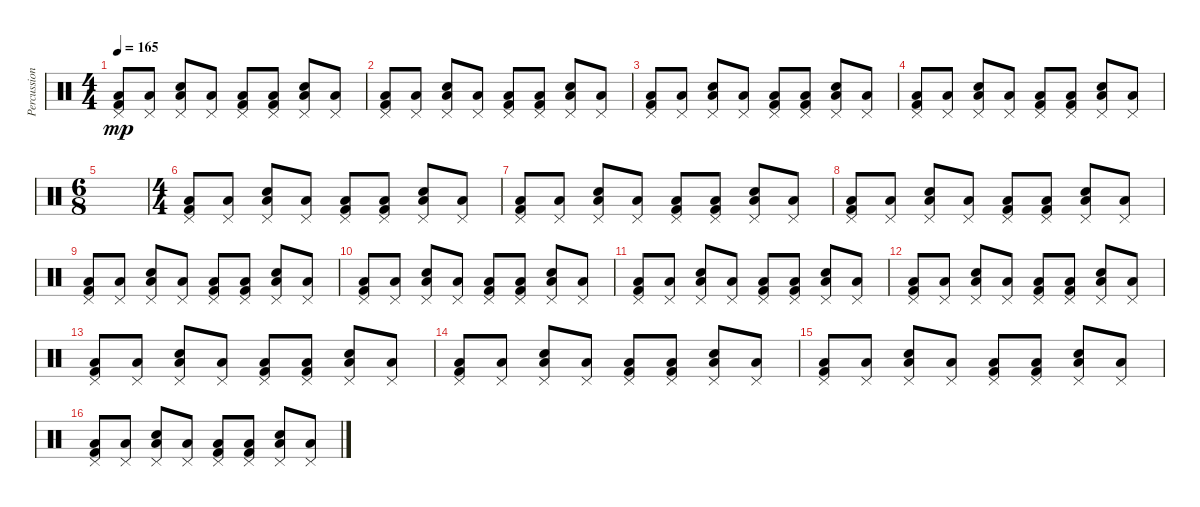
\track ("Percussion" "Percussion") {instrument percussion}
\staff {score}
\articulation defaults
\ts (4 4)
\tempo 165
\clef neutral
\ks c
("Low Floor Tom (hit)" "Kick (hit) 2" "Pedal Hi-Hat (hit)").8{dy mp} ("Low Floor Tom (hit)" "Pedal Hi-Hat (hit)").8 ("Low Floor Tom (hit)" "Electric Snare (hit)" "Pedal Hi-Hat (hit)").8 ("Low Floor Tom (hit)" "Pedal Hi-Hat (hit)").8 ("Low Floor Tom (hit)" "Kick (hit) 2" "Pedal Hi-Hat (hit)").8 ("Low Floor Tom (hit)" "Kick (hit) 2" "Pedal Hi-Hat (hit)").8 ("Low Floor Tom (hit)" "Electric Snare (hit)" "Pedal Hi-Hat (hit)").8 ("Low Floor Tom (hit)" "Pedal Hi-Hat (hit)").8 |
("Low Floor Tom (hit)" "Kick (hit) 2" "Pedal Hi-Hat (hit)").8 ("Low Floor Tom (hit)" "Pedal Hi-Hat (hit)").8 ("Low Floor Tom (hit)" "Electric Snare (hit)" "Pedal Hi-Hat (hit)").8 ("Low Floor Tom (hit)" "Pedal Hi-Hat (hit)").8 ("Low Floor Tom (hit)" "Kick (hit) 2" "Pedal Hi-Hat (hit)").8 ("Low Floor Tom (hit)" "Kick (hit) 2" "Pedal Hi-Hat (hit)").8 ("Low Floor Tom (hit)" "Electric Snare (hit)" "Pedal Hi-Hat (hit)").8 ("Low Floor Tom (hit)" "Pedal Hi-Hat (hit)").8 |
("Low Floor Tom (hit)" "Kick (hit) 2" "Pedal Hi-Hat (hit)").8 ("Low Floor Tom (hit)" "Pedal Hi-Hat (hit)").8 ("Low Floor Tom (hit)" "Electric Snare (hit)" "Pedal Hi-Hat (hit)").8 ("Low Floor Tom (hit)" "Pedal Hi-Hat (hit)").8 ("Low Floor Tom (hit)" "Kick (hit) 2" "Pedal Hi-Hat (hit)").8 ("Low Floor Tom (hit)" "Kick (hit) 2" "Pedal Hi-Hat (hit)").8 ("Low Floor Tom (hit)" "Electric Snare (hit)" "Pedal Hi-Hat (hit)").8 ("Low Floor Tom (hit)" "Pedal Hi-Hat (hit)").8 |
("Low Floor Tom (hit)" "Kick (hit) 2" "Pedal Hi-Hat (hit)").8 ("Low Floor Tom (hit)" "Pedal Hi-Hat (hit)").8 ("Low Floor Tom (hit)" "Electric Snare (hit)" "Pedal Hi-Hat (hit)").8 ("Low Floor Tom (hit)" "Pedal Hi-Hat (hit)").8 ("Low Floor Tom (hit)" "Kick (hit) 2" "Pedal Hi-Hat (hit)").8 ("Low Floor Tom (hit)" "Kick (hit) 2" "Pedal Hi-Hat (hit)").8 ("Low Floor Tom (hit)" "Electric Snare (hit)" "Pedal Hi-Hat (hit)").8 ("Low Floor Tom (hit)" "Pedal Hi-Hat (hit)").8 |
\ts (6 8)
|
\ts (4 4)
("Low Floor Tom (hit)" "Kick (hit) 2" "Pedal Hi-Hat (hit)").8 ("Low Floor Tom (hit)" "Pedal Hi-Hat (hit)").8 ("Low Floor Tom (hit)" "Electric Snare (hit)" "Pedal Hi-Hat (hit)").8 ("Low Floor Tom (hit)" "Pedal Hi-Hat (hit)").8 ("Low Floor Tom (hit)" "Kick (hit) 2" "Pedal Hi-Hat (hit)").8 ("Low Floor Tom (hit)" "Kick (hit) 2" "Pedal Hi-Hat (hit)").8 ("Low Floor Tom (hit)" "Electric Snare (hit)" "Pedal Hi-Hat (hit)").8 ("Low Floor Tom (hit)" "Pedal Hi-Hat (hit)").8 |
("Low Floor Tom (hit)" "Kick (hit) 2" "Pedal Hi-Hat (hit)").8 ("Low Floor Tom (hit)" "Pedal Hi-Hat (hit)").8 ("Low Floor Tom (hit)" "Electric Snare (hit)" "Pedal Hi-Hat (hit)").8 ("Low Floor Tom (hit)" "Pedal Hi-Hat (hit)").8 ("Low Floor Tom (hit)" "Kick (hit) 2" "Pedal Hi-Hat (hit)").8 ("Low Floor Tom (hit)" "Kick (hit) 2" "Pedal Hi-Hat (hit)").8 ("Low Floor Tom (hit)" "Electric Snare (hit)" "Pedal Hi-Hat (hit)").8 ("Low Floor Tom (hit)" "Pedal Hi-Hat (hit)").8 |
("Low Floor Tom (hit)" "Kick (hit) 2" "Pedal Hi-Hat (hit)").8 ("Low Floor Tom (hit)" "Pedal Hi-Hat (hit)").8 ("Low Floor Tom (hit)" "Electric Snare (hit)" "Pedal Hi-Hat (hit)").8 ("Low Floor Tom (hit)" "Pedal Hi-Hat (hit)").8 ("Low Floor Tom (hit)" "Kick (hit) 2" "Pedal Hi-Hat (hit)").8 ("Low Floor Tom (hit)" "Kick (hit) 2" "Pedal Hi-Hat (hit)").8 ("Low Floor Tom (hit)" "Electric Snare (hit)" "Pedal Hi-Hat (hit)").8 ("Low Floor Tom (hit)" "Pedal Hi-Hat (hit)").8 |
("Low Floor Tom (hit)" "Kick (hit) 2" "Pedal Hi-Hat (hit)").8 ("Low Floor Tom (hit)" "Pedal Hi-Hat (hit)").8 ("Low Floor Tom (hit)" "Electric Snare (hit)" "Pedal Hi-Hat (hit)").8 ("Low Floor Tom (hit)" "Pedal Hi-Hat (hit)").8 ("Low Floor Tom (hit)" "Kick (hit) 2" "Pedal Hi-Hat (hit)").8 ("Low Floor Tom (hit)" "Kick (hit) 2" "Pedal Hi-Hat (hit)").8 ("Low Floor Tom (hit)" "Electric Snare (hit)" "Pedal Hi-Hat (hit)").8 ("Low Floor Tom (hit)" "Pedal Hi-Hat (hit)").8 |
("Low Floor Tom (hit)" "Kick (hit) 2" "Pedal Hi-Hat (hit)").8 ("Low Floor Tom (hit)" "Pedal Hi-Hat (hit)").8 ("Low Floor Tom (hit)" "Electric Snare (hit)" "Pedal Hi-Hat (hit)").8 ("Low Floor Tom (hit)" "Pedal Hi-Hat (hit)").8 ("Low Floor Tom (hit)" "Kick (hit) 2" "Pedal Hi-Hat (hit)").8 ("Low Floor Tom (hit)" "Kick (hit) 2" "Pedal Hi-Hat (hit)").8 ("Low Floor Tom (hit)" "Electric Snare (hit)" "Pedal Hi-Hat (hit)").8 ("Low Floor Tom (hit)" "Pedal Hi-Hat (hit)").8 |
("Low Floor Tom (hit)" "Kick (hit) 2" "Pedal Hi-Hat (hit)").8 ("Low Floor Tom (hit)" "Pedal Hi-Hat (hit)").8 ("Low Floor Tom (hit)" "Electric Snare (hit)" "Pedal Hi-Hat (hit)").8 ("Low Floor Tom (hit)" "Pedal Hi-Hat (hit)").8 ("Low Floor Tom (hit)" "Kick (hit) 2" "Pedal Hi-Hat (hit)").8 ("Low Floor Tom (hit)" "Kick (hit) 2" "Pedal Hi-Hat (hit)").8 ("Low Floor Tom (hit)" "Electric Snare (hit)" "Pedal Hi-Hat (hit)").8 ("Low Floor Tom (hit)" "Pedal Hi-Hat (hit)").8 |
("Low Floor Tom (hit)" "Kick (hit) 2" "Pedal Hi-Hat (hit)").8 ("Low Floor Tom (hit)" "Pedal Hi-Hat (hit)").8 ("Low Floor Tom (hit)" "Electric Snare (hit)" "Pedal Hi-Hat (hit)").8 ("Low Floor Tom (hit)" "Pedal Hi-Hat (hit)").8 ("Low Floor Tom (hit)" "Kick (hit) 2" "Pedal Hi-Hat (hit)").8 ("Low Floor Tom (hit)" "Kick (hit) 2" "Pedal Hi-Hat (hit)").8 ("Low Floor Tom (hit)" "Electric Snare (hit)" "Pedal Hi-Hat (hit)").8 ("Low Floor Tom (hit)" "Pedal Hi-Hat (hit)").8 |
("Low Floor Tom (hit)" "Kick (hit) 2" "Pedal Hi-Hat (hit)").8 ("Low Floor Tom (hit)" "Pedal Hi-Hat (hit)").8 ("Low Floor Tom (hit)" "Electric Snare (hit)" "Pedal Hi-Hat (hit)").8 ("Low Floor Tom (hit)" "Pedal Hi-Hat (hit)").8 ("Low Floor Tom (hit)" "Kick (hit) 2" "Pedal Hi-Hat (hit)").8 ("Low Floor Tom (hit)" "Kick (hit) 2" "Pedal Hi-Hat (hit)").8 ("Low Floor Tom (hit)" "Electric Snare (hit)" "Pedal Hi-Hat (hit)").8 ("Low Floor Tom (hit)" "Pedal Hi-Hat (hit)").8 |
("Low Floor Tom (hit)" "Kick (hit) 2" "Pedal Hi-Hat (hit)").8 ("Low Floor Tom (hit)" "Pedal Hi-Hat (hit)").8 ("Low Floor Tom (hit)" "Electric Snare (hit)" "Pedal Hi-Hat (hit)").8 ("Low Floor Tom (hit)" "Pedal Hi-Hat (hit)").8 ("Low Floor Tom (hit)" "Kick (hit) 2" "Pedal Hi-Hat (hit)").8 ("Low Floor Tom (hit)" "Kick (hit) 2" "Pedal Hi-Hat (hit)").8 ("Low Floor Tom (hit)" "Electric Snare (hit)" "Pedal Hi-Hat (hit)").8 ("Low Floor Tom (hit)" "Pedal Hi-Hat (hit)").8 |
("Low Floor Tom (hit)" "Kick (hit) 2" "Pedal Hi-Hat (hit)").8 ("Low Floor Tom (hit)" "Pedal Hi-Hat (hit)").8 ("Low Floor Tom (hit)" "Electric Snare (hit)" "Pedal Hi-Hat (hit)").8 ("Low Floor Tom (hit)" "Pedal Hi-Hat (hit)").8 ("Low Floor Tom (hit)" "Kick (hit) 2" "Pedal Hi-Hat (hit)").8 ("Low Floor Tom (hit)" "Kick (hit) 2" "Pedal Hi-Hat (hit)").8 ("Low Floor Tom (hit)" "Electric Snare (hit)" "Pedal Hi-Hat (hit)").8 ("Low Floor Tom (hit)" "Pedal Hi-Hat (hit)").8 |
("Low Floor Tom (hit)" "Kick (hit) 2" "Pedal Hi-Hat (hit)").8 ("Low Floor Tom (hit)" "Pedal Hi-Hat (hit)").8 ("Low Floor Tom (hit)" "Electric Snare (hit)" "Pedal Hi-Hat (hit)").8 ("Low Floor Tom (hit)" "Pedal Hi-Hat (hit)").8 ("Low Floor Tom (hit)" "Kick (hit) 2" "Pedal Hi-Hat (hit)").8 ("Low Floor Tom (hit)" "Kick (hit) 2" "Pedal Hi-Hat (hit)").8 ("Low Floor Tom (hit)" "Electric Snare (hit)" "Pedal Hi-Hat (hit)").8 ("Low Floor Tom (hit)" "Pedal Hi-Hat (hit)").8
